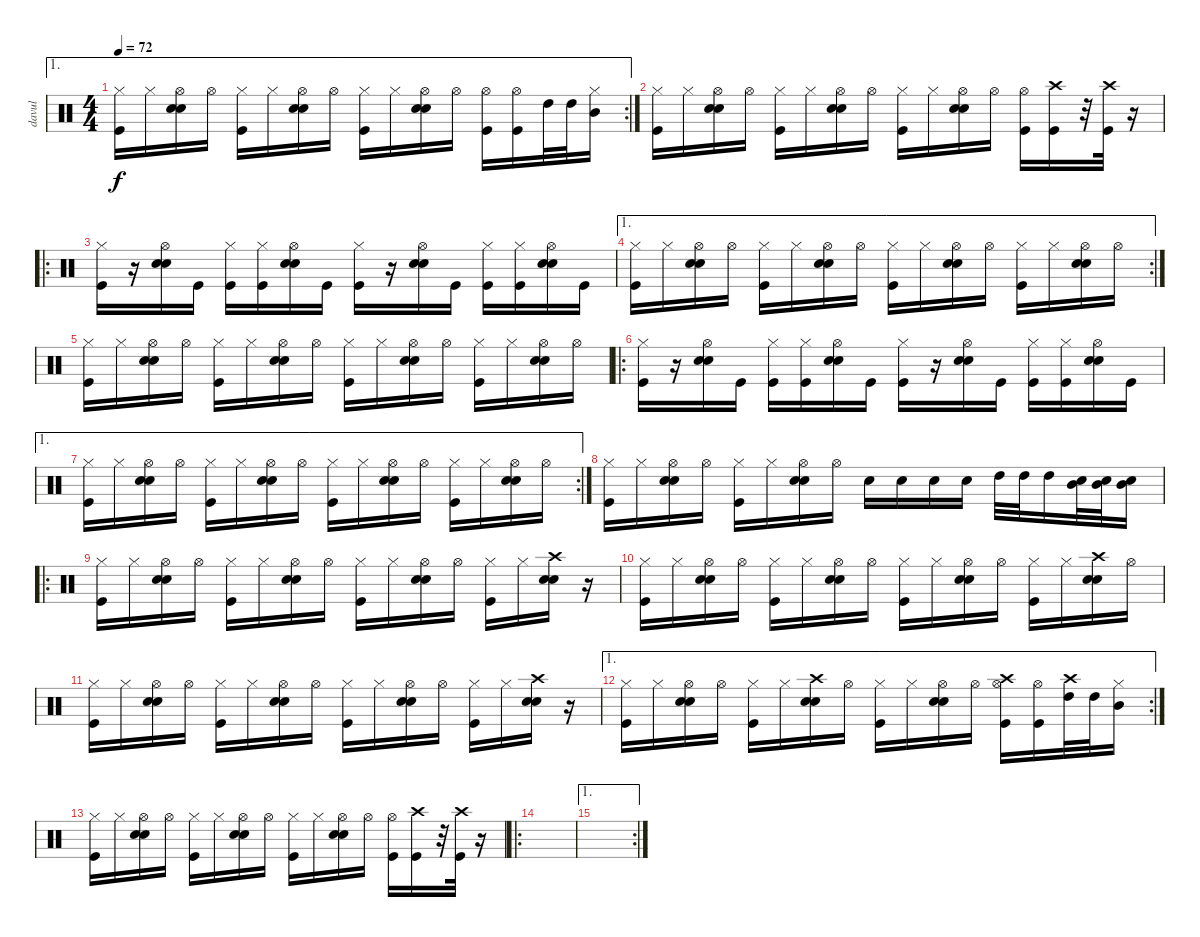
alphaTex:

\track ("davul" "davul") {instrument percussion}
\staff {score}
\articulation defaults
\ae 1
\rc 2
\ts (4 4)
\tempo 72
\clef neutral
\ks c
("Hi-Hat (closed)" "Kick (hit)").16{dy f} "Hi-Hat (closed)".16 ("Hi-Hat (open)" "Snare (hit) 2" "Electric Snare (hit)").16 "Hi-Hat (open)".16 ("Hi-Hat (closed)" "Kick (hit)").16 "Hi-Hat (closed)".16 ("Hi-Hat (open)" "Snare (hit) 2" "Electric Snare (hit)").16 "Hi-Hat (open)".16 ("Hi-Hat (closed)" "Kick (hit)").16 "Hi-Hat (closed)".16 ("Hi-Hat (open)" "Snare (hit) 2" "Electric Snare (hit)").16 "Hi-Hat (open)".16 ("Hi-Hat (open)" "Kick (hit)").16 ("Hi-Hat (open)" "Kick (hit)").16 "High Tom (hit)".32 "High Tom (hit)".32 ("Hi-Hat (closed)" "Mid Tom (hit)").16 |
("Hi-Hat (closed)" "Kick (hit)").16 "Hi-Hat (closed)".16 ("Hi-Hat (open)" "Snare (hit) 2" "Electric Snare (hit)").16 "Hi-Hat (open)".16 ("Hi-Hat (closed)" "Kick (hit)").16 "Hi-Hat (closed)".16 ("Hi-Hat (open)" "Snare (hit) 2" "Electric Snare (hit)").16 "Hi-Hat (open)".16 ("Hi-Hat (closed)" "Kick (hit)").16 "Hi-Hat (closed)".16 ("Hi-Hat (open)" "Snare (hit) 2" "Electric Snare (hit)").16 "Hi-Hat (open)".16 ("Hi-Hat (open)" "Kick (hit)").16 ("Crash high (hit)" "Kick (hit)").16 r.32 ("Crash high (hit)" "Kick (hit)").32 r.16 |
\ro
("Hi-Hat (closed)" "Kick (hit)").16 r.16 ("Hi-Hat (open)" "Snare (hit) 2" "Electric Snare (hit)").16 "Kick (hit)".16 ("Hi-Hat (closed)" "Kick (hit)").16 ("Hi-Hat (closed)" "Kick (hit)").16 ("Hi-Hat (open)" "Snare (hit) 2" "Electric Snare (hit)").16 "Kick (hit)".16 ("Hi-Hat (closed)" "Kick (hit)").16 r.16 ("Hi-Hat (open)" "Snare (hit) 2" "Electric Snare (hit)").16 "Kick (hit)".16 ("Hi-Hat (closed)" "Kick (hit)").16 ("Hi-Hat (closed)" "Kick (hit)").16 ("Hi-Hat (open)" "Snare (hit) 2" "Electric Snare (hit)").16 "Kick (hit)".16 |
\ae 1
\rc 2
("Hi-Hat (closed)" "Kick (hit)").16 "Hi-Hat (closed)".16 ("Hi-Hat (open)" "Snare (hit) 2" "Electric Snare (hit)").16 "Hi-Hat (open)".16 ("Hi-Hat (closed)" "Kick (hit)").16 "Hi-Hat (closed)".16 ("Hi-Hat (open)" "Snare (hit) 2" "Electric Snare (hit)").16 "Hi-Hat (open)".16 ("Hi-Hat (closed)" "Kick (hit)").16 "Hi-Hat (closed)".16 ("Hi-Hat (open)" "Snare (hit) 2" "Electric Snare (hit)").16 "Hi-Hat (open)".16 ("Hi-Hat (closed)" "Kick (hit)").16 "Hi-Hat (closed)".16 ("Hi-Hat (open)" "Snare (hit) 2" "Electric Snare (hit)").16 "Hi-Hat (open)".16 |
("Hi-Hat (closed)" "Kick (hit)").16 "Hi-Hat (closed)".16 ("Hi-Hat (open)" "Snare (hit) 2" "Electric Snare (hit)").16 "Hi-Hat (open)".16 ("Hi-Hat (closed)" "Kick (hit)").16 "Hi-Hat (closed)".16 ("Hi-Hat (open)" "Snare (hit) 2" "Electric Snare (hit)").16 "Hi-Hat (open)".16 ("Hi-Hat (closed)" "Kick (hit)").16 "Hi-Hat (closed)".16 ("Hi-Hat (open)" "Snare (hit) 2" "Electric Snare (hit)").16 "Hi-Hat (open)".16 ("Hi-Hat (closed)" "Kick (hit)").16 "Hi-Hat (closed)".16 ("Hi-Hat (open)" "Snare (hit) 2" "Electric Snare (hit)").16 "Hi-Hat (open)".16 |
\ro
("Hi-Hat (closed)" "Kick (hit)").16 r.16 ("Hi-Hat (open)" "Snare (hit) 2" "Electric Snare (hit)").16 "Kick (hit)".16 ("Hi-Hat (closed)" "Kick (hit)").16 ("Hi-Hat (closed)" "Kick (hit)").16 ("Hi-Hat (open)" "Snare (hit) 2" "Electric Snare (hit)").16 "Kick (hit)".16 ("Hi-Hat (closed)" "Kick (hit)").16 r.16 ("Hi-Hat (open)" "Snare (hit) 2" "Electric Snare (hit)").16 "Kick (hit)".16 ("Hi-Hat (closed)" "Kick (hit)").16 ("Hi-Hat (closed)" "Kick (hit)").16 ("Hi-Hat (open)" "Snare (hit) 2" "Electric Snare (hit)").16 "Kick (hit)".16 |
\ae 1
\rc 2
("Hi-Hat (closed)" "Kick (hit)").16 "Hi-Hat (closed)".16 ("Hi-Hat (open)" "Snare (hit) 2" "Electric Snare (hit)").16 "Hi-Hat (open)".16 ("Hi-Hat (closed)" "Kick (hit)").16 "Hi-Hat (closed)".16 ("Hi-Hat (open)" "Snare (hit) 2" "Electric Snare (hit)").16 "Hi-Hat (open)".16 ("Hi-Hat (closed)" "Kick (hit)").16 "Hi-Hat (closed)".16 ("Hi-Hat (open)" "Snare (hit) 2" "Electric Snare (hit)").16 "Hi-Hat (open)".16 ("Hi-Hat (closed)" "Kick (hit)").16 "Hi-Hat (closed)".16 ("Hi-Hat (open)" "Snare (hit) 2" "Electric Snare (hit)").16 "Hi-Hat (open)".16 |
("Hi-Hat (closed)" "Kick (hit)").16 "Hi-Hat (closed)".16 ("Hi-Hat (open)" "Snare (hit) 2" "Electric Snare (hit)").16 "Hi-Hat (open)".16 ("Hi-Hat (closed)" "Kick (hit)").16 "Hi-Hat (closed)".16 ("Hi-Hat (open)" "Snare (hit) 2" "Electric Snare (hit)").16 "Hi-Hat (open)".16 "Electric Snare (hit)".16 "Electric Snare (hit)".16 "Electric Snare (hit)".16 "Electric Snare (hit)".16 "High Tom (hit)".32 "High Tom (hit)".32 "High Tom (hit)".16 ("Mid Tom (hit)" "Snare (hit) 2").32 ("Mid Tom (hit)" "Snare (hit) 2").32 ("Mid Tom (hit)" "Snare (hit) 2").16 |
\ro
("Hi-Hat (closed)" "Kick (hit)").16 "Hi-Hat (closed)".16 ("Hi-Hat (open)" "Snare (hit) 2" "Electric Snare (hit)").16 "Hi-Hat (open)".16 ("Hi-Hat (closed)" "Kick (hit)").16 "Hi-Hat (closed)".16 ("Hi-Hat (open)" "Snare (hit) 2" "Electric Snare (hit)").16 "Hi-Hat (open)".16 ("Hi-Hat (closed)" "Kick (hit)").16 "Hi-Hat (closed)".16 ("Hi-Hat (open)" "Snare (hit) 2" "Electric Snare (hit)").16 "Hi-Hat (open)".16 ("Hi-Hat (closed)" "Kick (hit)").16 "Hi-Hat (closed)".16 ("Crash high (hit)" "Snare (hit) 2" "Electric Snare (hit)").16 r.16 |
("Hi-Hat (closed)" "Kick (hit)").16 "Hi-Hat (closed)".16 ("Hi-Hat (open)" "Snare (hit) 2" "Electric Snare (hit)").16 "Hi-Hat (open)".16 ("Hi-Hat (closed)" "Kick (hit)").16 "Hi-Hat (closed)".16 ("Hi-Hat (open)" "Snare (hit) 2" "Electric Snare (hit)").16 "Hi-Hat (open)".16 ("Hi-Hat (closed)" "Kick (hit)").16 "Hi-Hat (closed)".16 ("Hi-Hat (open)" "Snare (hit) 2" "Electric Snare (hit)").16 "Hi-Hat (open)".16 ("Hi-Hat (closed)" "Kick (hit)").16 "Hi-Hat (closed)".16 ("Crash high (hit)" "Snare (hit) 2" "Electric Snare (hit)").16 "Hi-Hat (open)".16 |
("Hi-Hat (closed)" "Kick (hit)").16 "Hi-Hat (closed)".16 ("Hi-Hat (open)" "Snare (hit) 2" "Electric Snare (hit)").16 "Hi-Hat (open)".16 ("Hi-Hat (closed)" "Kick (hit)").16 "Hi-Hat (closed)".16 ("Hi-Hat (open)" "Snare (hit) 2" "Electric Snare (hit)").16 "Hi-Hat (open)".16 ("Hi-Hat (closed)" "Kick (hit)").16 "Hi-Hat (closed)".16 ("Hi-Hat (open)" "Snare (hit) 2" "Electric Snare (hit)").16 "Hi-Hat (open)".16 ("Hi-Hat (closed)" "Kick (hit)").16 "Hi-Hat (closed)".16 ("Crash high (hit)" "Snare (hit) 2" "Electric Snare (hit)").16 r.16 |
\ae 1
\rc 2
("Hi-Hat (closed)" "Kick (hit)").16 "Hi-Hat (closed)".16 ("Hi-Hat (open)" "Snare (hit) 2" "Electric Snare (hit)").16 "Hi-Hat (open)".16 ("Hi-Hat (closed)" "Kick (hit)").16 "Hi-Hat (closed)".16 ("Crash high (hit)" "Snare (hit) 2" "Electric Snare (hit)").16 "Hi-Hat (open)".16 ("Hi-Hat (closed)" "Kick (hit)").16 "Hi-Hat (closed)".16 ("Hi-Hat (open)" "Snare (hit) 2" "Electric Snare (hit)").16 "Hi-Hat (open)".16 ("Crash high (hit)" "Hi-Hat (open)" "Kick (hit)").16 ("Hi-Hat (open)" "Kick (hit)").16 ("Crash high (hit)" "High Tom (hit)").32 "High Tom (hit)".32 ("Hi-Hat (closed)" "Mid Tom (hit)").16 |
("Hi-Hat (closed)" "Kick (hit)").16 "Hi-Hat (closed)".16 ("Hi-Hat (open)" "Snare (hit) 2" "Electric Snare (hit)").16 "Hi-Hat (open)".16 ("Hi-Hat (closed)" "Kick (hit)").16 "Hi-Hat (closed)".16 ("Hi-Hat (open)" "Snare (hit) 2" "Electric Snare (hit)").16 "Hi-Hat (open)".16 ("Hi-Hat (closed)" "Kick (hit)").16 "Hi-Hat (closed)".16 ("Hi-Hat (open)" "Snare (hit) 2" "Electric Snare (hit)").16 "Hi-Hat (open)".16 ("Hi-Hat (open)" "Kick (hit)").16 ("Crash high (hit)" "Kick (hit)").16 r.32 ("Crash high (hit)" "Kick (hit)").32 r.16 |
\ro
|
\ae 1
\rc 2
